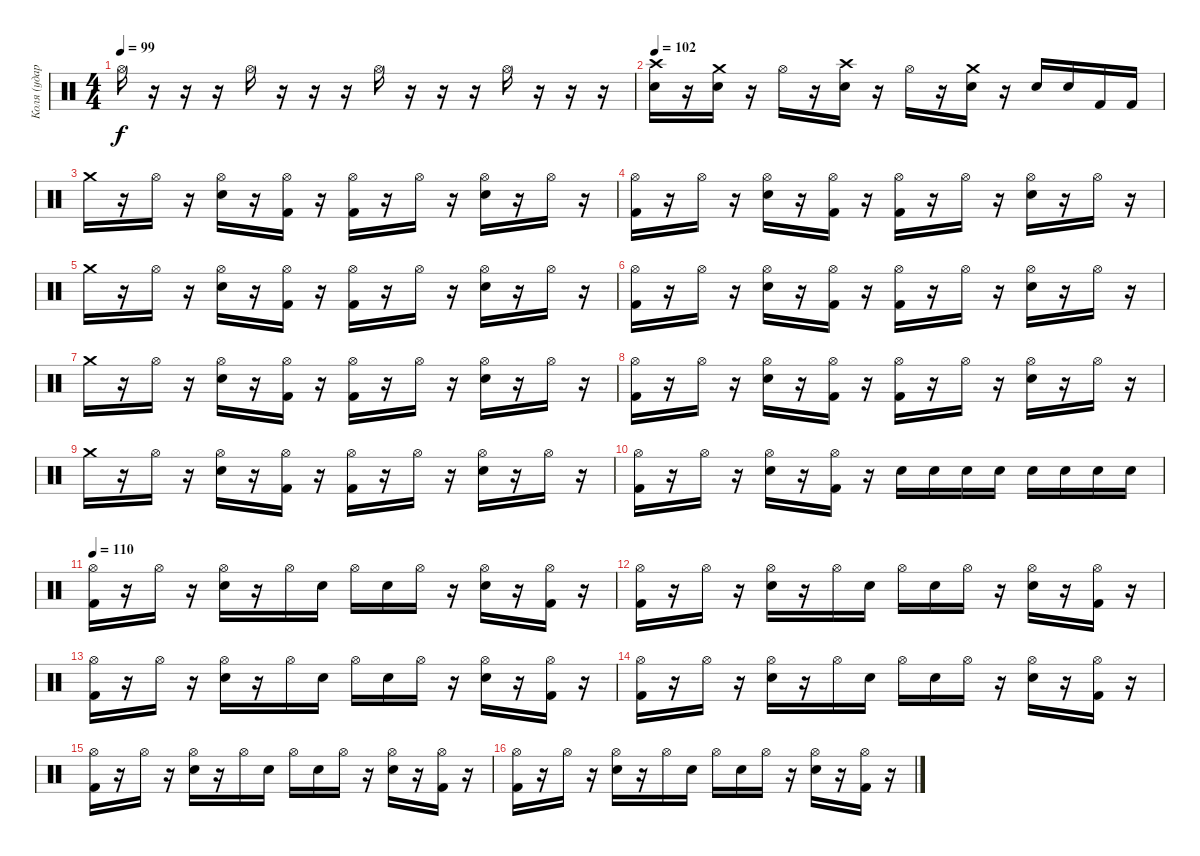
\track ("Коля (ударные)" "Коля (удар") {instrument percussion}
\staff {score}
\articulation defaults
\ts (4 4)
\tempo 99
\clef neutral
\ks c "Hi-Hat (open)".16{dy f}
r.16 r.16 r.16 "Hi-Hat (open)".16 r.16 r.16 r.16 "Hi-Hat (open)".16 r.16 r.16 r.16 "Hi-Hat (open)".16 r.16 r.16 r.16 |
\tempo 102
("Electric Snare (hit)" "Crash high (hit)").16 r.16 ("Electric Snare (hit)" "Crash medium (hit)").16 r.16 "Hi-Hat (open)".16 r.16 ("Electric Snare (hit)" "Crash high (hit)").16 r.16 "Hi-Hat (open)".16 r.16 ("Electric Snare (hit)" "Crash medium (hit)").16 r.16 "Electric Snare (hit)".16 "Electric Snare (hit)".16 "Kick (hit) 2".16 "Kick (hit) 2".16 |
"Crash medium (hit)".16 r.16 "Hi-Hat (open)".16 r.16 ("Electric Snare (hit)" "Hi-Hat (open)").16 r.16 ("Kick (hit) 2" "Hi-Hat (open)").16 r.16 ("Kick (hit) 2" "Hi-Hat (open)").16 r.16 "Hi-Hat (open)".16 r.16 ("Electric Snare (hit)" "Hi-Hat (open)").16 r.16 "Hi-Hat (open)".16 r.16 |
("Kick (hit) 2" "Hi-Hat (open)").16 r.16 "Hi-Hat (open)".16 r.16 ("Electric Snare (hit)" "Hi-Hat (open)").16 r.16 ("Kick (hit) 2" "Hi-Hat (open)").16 r.16 ("Kick (hit) 2" "Hi-Hat (open)").16 r.16 "Hi-Hat (open)".16 r.16 ("Electric Snare (hit)" "Hi-Hat (open)").16 r.16 "Hi-Hat (open)".16 r.16 |
"Crash medium (hit)".16 r.16 "Hi-Hat (open)".16 r.16 ("Electric Snare (hit)" "Hi-Hat (open)").16 r.16 ("Kick (hit) 2" "Hi-Hat (open)").16 r.16 ("Kick (hit) 2" "Hi-Hat (open)").16 r.16 "Hi-Hat (open)".16 r.16 ("Electric Snare (hit)" "Hi-Hat (open)").16 r.16 "Hi-Hat (open)".16 r.16 |
("Kick (hit) 2" "Hi-Hat (open)").16 r.16 "Hi-Hat (open)".16 r.16 ("Electric Snare (hit)" "Hi-Hat (open)").16 r.16 ("Kick (hit) 2" "Hi-Hat (open)").16 r.16 ("Kick (hit) 2" "Hi-Hat (open)").16 r.16 "Hi-Hat (open)".16 r.16 ("Electric Snare (hit)" "Hi-Hat (open)").16 r.16 "Hi-Hat (open)".16 r.16 |
"Crash medium (hit)".16 r.16 "Hi-Hat (open)".16 r.16 ("Electric Snare (hit)" "Hi-Hat (open)").16 r.16 ("Kick (hit) 2" "Hi-Hat (open)").16 r.16 ("Kick (hit) 2" "Hi-Hat (open)").16 r.16 "Hi-Hat (open)".16 r.16 ("Electric Snare (hit)" "Hi-Hat (open)").16 r.16 "Hi-Hat (open)".16 r.16 |
("Kick (hit) 2" "Hi-Hat (open)").16 r.16 "Hi-Hat (open)".16 r.16 ("Electric Snare (hit)" "Hi-Hat (open)").16 r.16 ("Kick (hit) 2" "Hi-Hat (open)").16 r.16 ("Kick (hit) 2" "Hi-Hat (open)").16 r.16 "Hi-Hat (open)".16 r.16 ("Electric Snare (hit)" "Hi-Hat (open)").16 r.16 "Hi-Hat (open)".16 r.16 |
"Crash medium (hit)".16 r.16 "Hi-Hat (open)".16 r.16 ("Electric Snare (hit)" "Hi-Hat (open)").16 r.16 ("Kick (hit) 2" "Hi-Hat (open)").16 r.16 ("Kick (hit) 2" "Hi-Hat (open)").16 r.16 "Hi-Hat (open)".16 r.16 ("Electric Snare (hit)" "Hi-Hat (open)").16 r.16 "Hi-Hat (open)".16 r.16 |
("Kick (hit) 2" "Hi-Hat (open)").16 r.16 "Hi-Hat (open)".16 r.16 ("Electric Snare (hit)" "Hi-Hat (open)").16 r.16 ("Kick (hit) 2" "Hi-Hat (open)").16 r.16 "Electric Snare (hit)".16 "Electric Snare (hit)".16 "Electric Snare (hit)".16 "Electric Snare (hit)".16 "Electric Snare (hit)".16 "Electric Snare (hit)".16 "Electric Snare (hit)".16 "Electric Snare (hit)".16 |
\tempo 110
("Kick (hit) 2" "Hi-Hat (open)").16 r.16 "Hi-Hat (open)".16 r.16 ("Electric Snare (hit)" "Hi-Hat (open)").16 r.16 "Hi-Hat (open)".16 "Electric Snare (hit)".16 "Hi-Hat (open)".16 "Electric Snare (hit)".16 "Hi-Hat (open)".16 r.16 ("Electric Snare (hit)" "Hi-Hat (open)").16 r.16 ("Kick (hit) 2" "Hi-Hat (open)").16 r.16 |
("Kick (hit) 2" "Hi-Hat (open)").16 r.16 "Hi-Hat (open)".16 r.16 ("Electric Snare (hit)" "Hi-Hat (open)").16 r.16 "Hi-Hat (open)".16 "Electric Snare (hit)".16 "Hi-Hat (open)".16 "Electric Snare (hit)".16 "Hi-Hat (open)".16 r.16 ("Electric Snare (hit)" "Hi-Hat (open)").16 r.16 ("Kick (hit) 2" "Hi-Hat (open)").16 r.16 |
("Kick (hit) 2" "Hi-Hat (open)").16 r.16 "Hi-Hat (open)".16 r.16 ("Electric Snare (hit)" "Hi-Hat (open)").16 r.16 "Hi-Hat (open)".16 "Electric Snare (hit)".16 "Hi-Hat (open)".16 "Electric Snare (hit)".16 "Hi-Hat (open)".16 r.16 ("Electric Snare (hit)" "Hi-Hat (open)").16 r.16 ("Kick (hit) 2" "Hi-Hat (open)").16 r.16 |
("Kick (hit) 2" "Hi-Hat (open)").16 r.16 "Hi-Hat (open)".16 r.16 ("Electric Snare (hit)" "Hi-Hat (open)").16 r.16 "Hi-Hat (open)".16 "Electric Snare (hit)".16 "Hi-Hat (open)".16 "Electric Snare (hit)".16 "Hi-Hat (open)".16 r.16 ("Electric Snare (hit)" "Hi-Hat (open)").16 r.16 ("Kick (hit) 2" "Hi-Hat (open)").16 r.16 |
("Kick (hit) 2" "Hi-Hat (open)").16 r.16 "Hi-Hat (open)".16 r.16 ("Electric Snare (hit)" "Hi-Hat (open)").16 r.16 "Hi-Hat (open)".16 "Electric Snare (hit)".16 "Hi-Hat (open)".16 "Electric Snare (hit)".16 "Hi-Hat (open)".16 r.16 ("Electric Snare (hit)" "Hi-Hat (open)").16 r.16 ("Kick (hit) 2" "Hi-Hat (open)").16 r.16 |
("Kick (hit) 2" "Hi-Hat (open)").16 r.16 "Hi-Hat (open)".16 r.16 ("Electric Snare (hit)" "Hi-Hat (open)").16 r.16 "Hi-Hat (open)".16 "Electric Snare (hit)".16 "Hi-Hat (open)".16 "Electric Snare (hit)".16 "Hi-Hat (open)".16 r.16 ("Electric Snare (hit)" "Hi-Hat (open)").16 r.16 ("Kick (hit) 2" "Hi-Hat (open)").16 r.16
